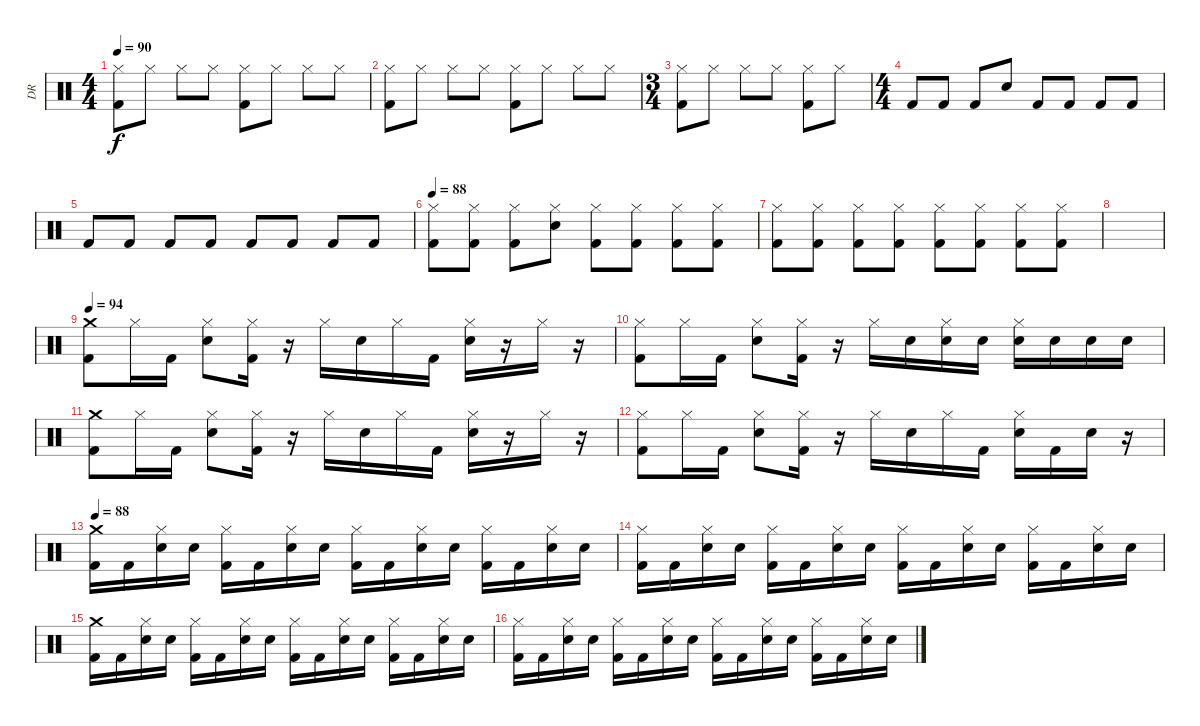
\track ("DR" "DR") {instrument percussion}
\staff {score}
\articulation defaults
\ts (4 4)
\tempo 90
\clef neutral
\ks c
("Hi-Hat (closed)" "Kick (hit) 2").8{dy f} "Hi-Hat (closed)".8 "Hi-Hat (closed)".8 "Hi-Hat (closed)".8 ("Hi-Hat (closed)" "Kick (hit) 2").8 "Hi-Hat (closed)".8 "Hi-Hat (closed)".8 "Hi-Hat (closed)".8 |
("Hi-Hat (closed)" "Kick (hit) 2").8 "Hi-Hat (closed)".8 "Hi-Hat (closed)".8 "Hi-Hat (closed)".8 ("Hi-Hat (closed)" "Kick (hit) 2").8 "Hi-Hat (closed)".8 "Hi-Hat (closed)".8 "Hi-Hat (closed)".8 |
\ts (3 4)
("Hi-Hat (closed)" "Kick (hit) 2").8 "Hi-Hat (closed)".8 "Hi-Hat (closed)".8 "Hi-Hat (closed)".8 ("Hi-Hat (closed)" "Kick (hit) 2").8 "Hi-Hat (closed)".8 |
\ts (4 4)
"Kick (hit) 2".8 "Kick (hit) 2".8 "Kick (hit) 2".8 "Snare (hit) 2".8 "Kick (hit) 2".8 "Kick (hit) 2".8 "Kick (hit) 2".8 "Kick (hit) 2".8 |
"Kick (hit) 2".8 "Kick (hit) 2".8 "Kick (hit) 2".8 "Kick (hit) 2".8 "Kick (hit) 2".8 "Kick (hit) 2".8 "Kick (hit) 2".8 "Kick (hit) 2".8 |
\tempo 88
("Kick (hit) 2" "Hi-Hat (closed)").8 ("Kick (hit) 2" "Hi-Hat (closed)").8 ("Kick (hit) 2" "Hi-Hat (closed)").8 ("Snare (hit) 2" "Hi-Hat (closed)").8 ("Kick (hit) 2" "Hi-Hat (closed)").8 ("Kick (hit) 2" "Hi-Hat (closed)").8 ("Kick (hit) 2" "Hi-Hat (closed)").8 ("Kick (hit) 2" "Hi-Hat (closed)").8 |
("Kick (hit) 2" "Hi-Hat (closed)").8 ("Kick (hit) 2" "Hi-Hat (closed)").8 ("Kick (hit) 2" "Hi-Hat (closed)").8 ("Kick (hit) 2" "Hi-Hat (closed)").8 ("Kick (hit) 2" "Hi-Hat (closed)").8 ("Kick (hit) 2" "Hi-Hat (closed)").8 ("Kick (hit) 2" "Hi-Hat (closed)").8 ("Kick (hit) 2" "Hi-Hat (closed)").8 |
|
\tempo 94
("Crash medium (hit)" "Kick (hit) 2").8 "Hi-Hat (closed)".16 "Kick (hit) 2".16 ("Hi-Hat (closed)" "Snare (hit) 2").8 ("Hi-Hat (closed)" "Kick (hit) 2").16 r.16 "Hi-Hat (closed)".16 "Snare (hit) 2".16 "Hi-Hat (closed)".16 "Kick (hit) 2".16 ("Hi-Hat (closed)" "Snare (hit) 2").16 r.16 "Hi-Hat (closed)".16 r.16 |
("Hi-Hat (closed)" "Kick (hit) 2").8 "Hi-Hat (closed)".16 "Kick (hit) 2".16 ("Hi-Hat (closed)" "Snare (hit) 2").8 ("Hi-Hat (closed)" "Kick (hit) 2").16 r.16 "Hi-Hat (closed)".16 "Snare (hit) 2".16 ("Hi-Hat (closed)" "Snare (hit) 2").16 "Snare (hit) 2".16 ("Hi-Hat (closed)" "Snare (hit) 2").16 "Snare (hit) 2".16 "Snare (hit) 2".16 "Snare (hit) 2".16 |
("Crash medium (hit)" "Kick (hit) 2").8 "Hi-Hat (closed)".16 "Kick (hit) 2".16 ("Hi-Hat (closed)" "Snare (hit) 2").8 ("Hi-Hat (closed)" "Kick (hit) 2").16 r.16 "Hi-Hat (closed)".16 "Snare (hit) 2".16 "Hi-Hat (closed)".16 "Kick (hit) 2".16 ("Hi-Hat (closed)" "Snare (hit) 2").16 r.16 "Hi-Hat (closed)".16 r.16 |
("Hi-Hat (closed)" "Kick (hit) 2").8 "Hi-Hat (closed)".16 "Kick (hit) 2".16 ("Hi-Hat (closed)" "Snare (hit) 2").8 ("Hi-Hat (closed)" "Kick (hit) 2").16 r.16 "Hi-Hat (closed)".16 "Snare (hit) 2".16 "Hi-Hat (closed)".16 "Kick (hit) 2".16 ("Hi-Hat (closed)" "Snare (hit) 2").16 "Kick (hit) 2".16 "Snare (hit) 2".16 r.16 |
\tempo 88
("Crash medium (hit)" "Kick (hit) 2").16 "Kick (hit) 2".16 ("Hi-Hat (closed)" "Snare (hit) 2").16 "Snare (hit)".16 ("Hi-Hat (closed)" "Kick (hit) 2").16 "Kick (hit) 2".16 ("Hi-Hat (closed)" "Snare (hit) 2").16 "Snare (hit)".16 ("Hi-Hat (closed)" "Kick (hit) 2").16 "Kick (hit) 2".16 ("Hi-Hat (closed)" "Snare (hit) 2").16 "Snare (hit)".16 ("Hi-Hat (closed)" "Kick (hit) 2").16 "Kick (hit) 2".16 ("Hi-Hat (closed)" "Snare (hit) 2").16 "Snare (hit)".16 |
("Hi-Hat (closed)" "Kick (hit) 2").16 "Kick (hit) 2".16 ("Hi-Hat (closed)" "Snare (hit) 2").16 "Snare (hit)".16 ("Hi-Hat (closed)" "Kick (hit) 2").16 "Kick (hit) 2".16 ("Hi-Hat (closed)" "Snare (hit) 2").16 "Snare (hit)".16 ("Hi-Hat (closed)" "Kick (hit) 2").16 "Kick (hit) 2".16 ("Hi-Hat (closed)" "Snare (hit) 2").16 "Snare (hit)".16 ("Hi-Hat (closed)" "Kick (hit) 2").16 "Kick (hit) 2".16 ("Hi-Hat (closed)" "Snare (hit) 2").16 "Snare (hit)".16 |
("Crash medium (hit)" "Kick (hit) 2").16 "Kick (hit) 2".16 ("Hi-Hat (closed)" "Snare (hit) 2").16 "Snare (hit)".16 ("Hi-Hat (closed)" "Kick (hit) 2").16 "Kick (hit) 2".16 ("Hi-Hat (closed)" "Snare (hit) 2").16 "Snare (hit)".16 ("Hi-Hat (closed)" "Kick (hit) 2").16 "Kick (hit) 2".16 ("Hi-Hat (closed)" "Snare (hit) 2").16 "Snare (hit)".16 ("Hi-Hat (closed)" "Kick (hit) 2").16 "Kick (hit) 2".16 ("Hi-Hat (closed)" "Snare (hit) 2").16 "Snare (hit)".16 |
("Hi-Hat (closed)" "Kick (hit) 2").16 "Kick (hit) 2".16 ("Hi-Hat (closed)" "Snare (hit) 2").16 "Snare (hit)".16 ("Hi-Hat (closed)" "Kick (hit) 2").16 "Kick (hit) 2".16 ("Hi-Hat (closed)" "Snare (hit) 2").16 "Snare (hit)".16 ("Hi-Hat (closed)" "Kick (hit) 2").16 "Kick (hit) 2".16 ("Hi-Hat (closed)" "Snare (hit) 2").16 "Snare (hit)".16 ("Hi-Hat (closed)" "Kick (hit) 2").16 "Kick (hit) 2".16 ("Hi-Hat (closed)" "Snare (hit) 2").16 "Snare (hit)".16
